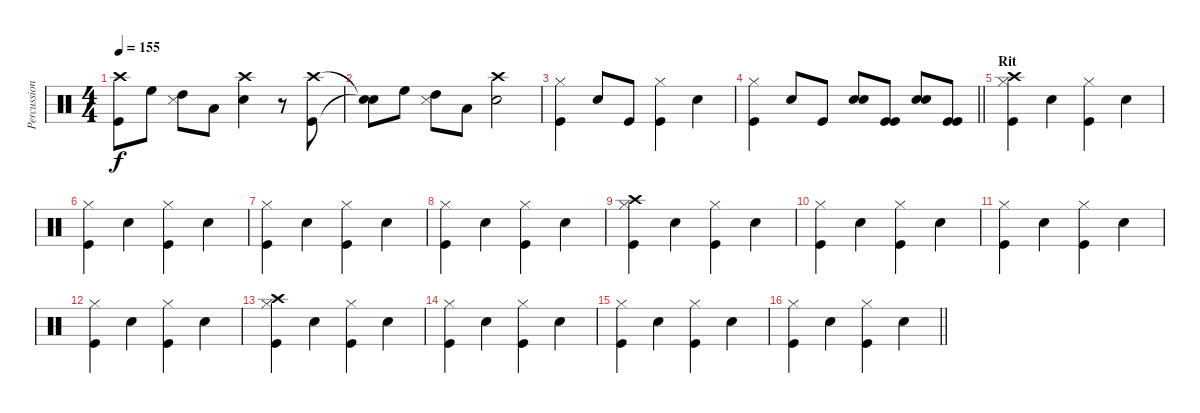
\track ("Percussioni" "Percussion") {instrument percussion}
\staff {score}
\articulation defaults
\ts (4 4)
\tempo 155
\clef neutral
\ks c
("Crash high (hit)" "Kick (hit)").8{dy f} "High Floor Tom (hit)".8 ("High Tom (hit)" "Snare (side stick) 3").8 "Low Tom (hit)".8 ("Crash high (hit)" "Snare (hit) 2").4 r.8 ("Crash high (hit)" "Kick (hit)").8 |
("Snare (hit)"{t} "Snare (hit)"{t}).8 "High Floor Tom (hit)".8 ("High Tom (hit)" "Snare (side stick) 3").8 "Low Tom (hit)".8 ("Crash high (hit)" "Snare (hit) 2").2 |
("Hi-Hat (closed)" "Kick (hit)").4 "Snare (hit) 2".8 "Kick (hit)".8 ("Hi-Hat (closed)" "Kick (hit)").4 "Snare (hit) 2".4 |
\barLineRight lightlight
("Hi-Hat (closed)" "Kick (hit)").4 "Snare (hit) 2".8 "Kick (hit)".8 ("Snare (hit) 2" "Snare (hit) 2").8 ("Kick (hit)" "Kick (hit)").8 ("Snare (hit) 2" "Snare (hit) 2").8 ("Kick (hit)" "Kick (hit)").8 |
\section ("" "Rit")
("Hi-Hat (closed)" "Kick (hit)" "Crash high (hit)").4 "Snare (hit) 2".4 ("Hi-Hat (closed)" "Kick (hit)").4 "Snare (hit) 2".4 |
("Hi-Hat (closed)" "Kick (hit)").4 "Snare (hit) 2".4 ("Hi-Hat (closed)" "Kick (hit)").4 "Snare (hit) 2".4 |
("Hi-Hat (closed)" "Kick (hit)").4 "Snare (hit) 2".4 ("Hi-Hat (closed)" "Kick (hit)").4 "Snare (hit) 2".4 |
("Hi-Hat (closed)" "Kick (hit)").4 "Snare (hit) 2".4 ("Hi-Hat (closed)" "Kick (hit)").4 "Snare (hit) 2".4 |
("Hi-Hat (closed)" "Kick (hit)" "Crash high (hit)").4 "Snare (hit) 2".4 ("Hi-Hat (closed)" "Kick (hit)").4 "Snare (hit) 2".4 |
("Hi-Hat (closed)" "Kick (hit)").4 "Snare (hit) 2".4 ("Hi-Hat (closed)" "Kick (hit)").4 "Snare (hit) 2".4 |
("Hi-Hat (closed)" "Kick (hit)").4 "Snare (hit) 2".4 ("Hi-Hat (closed)" "Kick (hit)").4 "Snare (hit) 2".4 |
("Hi-Hat (closed)" "Kick (hit)").4 "Snare (hit) 2".4 ("Hi-Hat (closed)" "Kick (hit)").4 "Snare (hit) 2".4 |
("Hi-Hat (closed)" "Kick (hit)" "Crash high (hit)").4 "Snare (hit) 2".4 ("Hi-Hat (closed)" "Kick (hit)").4 "Snare (hit) 2".4 |
("Hi-Hat (closed)" "Kick (hit)").4 "Snare (hit) 2".4 ("Hi-Hat (closed)" "Kick (hit)").4 "Snare (hit) 2".4 |
("Hi-Hat (closed)" "Kick (hit)").4 "Snare (hit) 2".4 ("Hi-Hat (closed)" "Kick (hit)").4 "Snare (hit) 2".4 |
\barLineRight lightlight
("Hi-Hat (closed)" "Kick (hit)").4 "Snare (hit) 2".4 ("Hi-Hat (closed)" "Kick (hit)").4 "Snare (hit) 2".4
